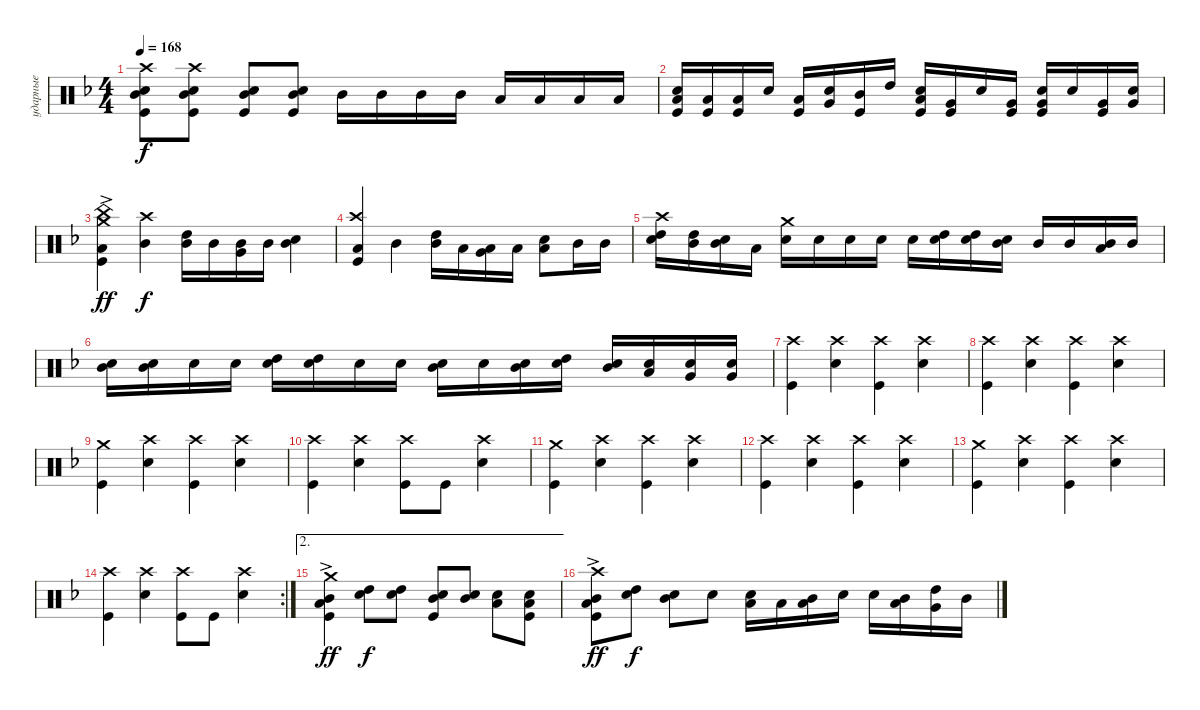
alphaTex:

\track ("ударные" "ударные") {instrument percussion}
\staff {score}
\articulation defaults
\ts (4 4)
\tempo 168
\clef neutral
\ks dminor
("Mid Tom (hit)" "Snare (hit) 2" "Kick (hit)" "Crash high (hit)").8{dy f} ("Mid Tom (hit)" "Snare (hit) 2" "Kick (hit)" "Crash high (hit)").8 ("Mid Tom (hit)" "Snare (hit) 2" "Kick (hit)").8 ("Mid Tom (hit)" "Snare (hit) 2" "Kick (hit)").8 "Mid Tom (hit)".16 "Mid Tom (hit)".16 "Mid Tom (hit)".16 "Mid Tom (hit)".16 "Low Tom (hit)".16 "Low Tom (hit)".16 "Low Tom (hit)".16 "Low Tom (hit)".16 |
("Low Tom (hit)" "Snare (hit) 2" "Kick (hit)").16 ("Low Tom (hit)" "Kick (hit)").16 ("Low Tom (hit)" "Kick (hit)").16 "Snare (hit) 2".16 ("Low Tom (hit)" "Kick (hit)").16 ("Very Low Tom (hit)" "Snare (hit) 2").16 ("Mid Tom (hit)" "Kick (hit)").16 "High Tom (hit)".16 ("Low Tom (hit)" "Snare (hit) 2" "Kick (hit)").16 ("Kick (hit)" "Very Low Tom (hit)").16 "Snare (hit) 2".16 ("Very Low Tom (hit)" "Kick (hit)").16 ("Very Low Tom (hit)" "Snare (hit) 2" "Kick (hit)").16 "Snare (hit) 2".16 ("Very Low Tom (hit)" "Kick (hit)").16 ("Very Low Tom (hit)" "Snare (hit) 2").16 |
("Kick (hit)" "Low Floor Tom (hit)" "China (hit)"{ac} "Crash medium (hit)").4{dy ff} ("Mid Tom (hit)" "Crash high (hit)").4{dy f} ("High Tom (hit)" "Mid Tom (hit)").16 "Mid Tom (hit)".16 ("Mid Tom (hit)" "Very Low Tom (hit)").16 "Mid Tom (hit)".16 ("Snare (hit) 2" "Mid Tom (hit)").4 |
("Kick (hit)" "Low Floor Tom (hit)" "Crash high (hit)").4 "Mid Tom (hit)".4 ("High Tom (hit)" "Mid Tom (hit)").16 "Low Tom (hit)".16 ("Low Tom (hit)" "Very Low Tom (hit)").16 "Low Tom (hit)".16 ("Low Tom (hit)" "Snare (hit) 2").8 "Mid Tom (hit)".16 "Mid Tom (hit)".16 |
("High Tom (hit)" "Snare (hit) 2" "Crash high (hit)").16 ("High Tom (hit)" "Mid Tom (hit)").16 ("Mid Tom (hit)" "Snare (hit) 2").16 "Low Tom (hit)".16 ("Snare (hit) 2" "Crash medium (hit)").16 "Snare (hit) 2".16 "Electric Snare (hit)".16 "Electric Snare (hit)".16 "Snare (hit) 2".16 ("High Tom (hit)" "Electric Snare (hit)").16 ("High Tom (hit)" "Snare (hit) 2").16 ("Mid Tom (hit)" "Snare (hit) 2").16 "Mid Tom (hit)".16 "Mid Tom (hit)".16 ("Mid Tom (hit)" "Low Tom (hit)").16 "Mid Tom (hit)".16 |
("Mid Tom (hit)" "Snare (hit) 2").16 ("Mid Tom (hit)" "Snare (hit) 2").16 "Snare (hit) 2".16 "Electric Snare (hit)".16 ("High Tom (hit)" "Electric Snare (hit)").16 ("High Tom (hit)" "Snare (hit) 2").16 "Electric Snare (hit)".16 "Snare (hit) 2".16 ("Mid Tom (hit)" "Snare (hit) 2").16 "Electric Snare (hit)".16 ("Mid Tom (hit)" "Snare (hit) 2").16 ("High Tom (hit)" "Snare (hit) 2").16 ("Mid Tom (hit)" "Electric Snare (hit)").16 ("Low Tom (hit)" "Snare (hit) 2").16 ("Very Low Tom (hit)" "Snare (hit) 2").16 ("Very Low Tom (hit)" "Snare (hit) 2").16 |
("Kick (hit)" "Crash high (hit)").4 ("Snare (hit) 2" "Crash high (hit)").4 ("Kick (hit)" "Crash high (hit)").4 ("Snare (hit) 2" "Crash high (hit)").4 |
("Kick (hit)" "Crash high (hit)").4 ("Snare (hit) 2" "Crash high (hit)").4 ("Kick (hit)" "Crash high (hit)").4 ("Snare (hit) 2" "Crash high (hit)").4 |
("Kick (hit)" "Crash medium (hit)").4 ("Snare (hit) 2" "Crash high (hit)").4 ("Kick (hit)" "Crash high (hit)").4 ("Snare (hit) 2" "Crash high (hit)").4 |
("Kick (hit)" "Crash high (hit)").4 ("Snare (hit) 2" "Crash high (hit)").4 ("Kick (hit)" "Crash high (hit)").8 "Kick (hit)".8 ("Snare (hit) 2" "Crash high (hit)").4 |
("Kick (hit)" "Crash medium (hit)").4 ("Snare (hit) 2" "Crash high (hit)").4 ("Kick (hit)" "Crash high (hit)").4 ("Snare (hit) 2" "Crash high (hit)").4 |
("Kick (hit)" "Crash high (hit)").4 ("Snare (hit) 2" "Crash high (hit)").4 ("Kick (hit)" "Crash high (hit)").4 ("Snare (hit) 2" "Crash high (hit)").4 |
("Kick (hit)" "Crash medium (hit)").4 ("Snare (hit) 2" "Crash high (hit)").4 ("Kick (hit)" "Crash high (hit)").4 ("Snare (hit) 2" "Crash high (hit)").4 |
\rc 2
("Kick (hit)" "Crash high (hit)").4 ("Snare (hit) 2" "Crash high (hit)").4 ("Kick (hit)" "Crash high (hit)").8 "Kick (hit)".8 ("Snare (hit) 2" "Crash high (hit)").4 |
\ae 2
("Kick (hit)" "Mid Tom (hit)" "Low Tom (hit)" "Crash medium (hit)"{ac}).4{dy ff} ("High Tom (hit)" "Snare (hit) 2").8{dy f} ("High Tom (hit)" "Snare (hit) 2").8 ("Kick (hit)" "Mid Tom (hit)" "Snare (hit) 2").8 ("Snare (hit) 2" "Mid Tom (hit)").8 ("Low Tom (hit)" "Snare (hit) 2").8 ("Kick (hit)" "Low Tom (hit)" "Snare (hit) 2").8 |
("Kick (hit)" "Mid Tom (hit)" "Low Tom (hit)" "Crash high (hit)"{ac}).8{dy ff} ("High Tom (hit)" "Snare (hit) 2").8{dy f} ("Mid Tom (hit)" "Snare (hit) 2").8 "Snare (hit) 2".8 ("Low Tom (hit)" "Snare (hit) 2").16 "Low Tom (hit)".16 ("Mid Tom (hit)" "Low Tom (hit)").16 "Snare (hit) 2".16 "Snare (hit) 2".16 ("Low Tom (hit)" "Mid Tom (hit)").16 ("Very Low Tom (hit)" "High Tom (hit)").16 "Mid Tom (hit)".16
